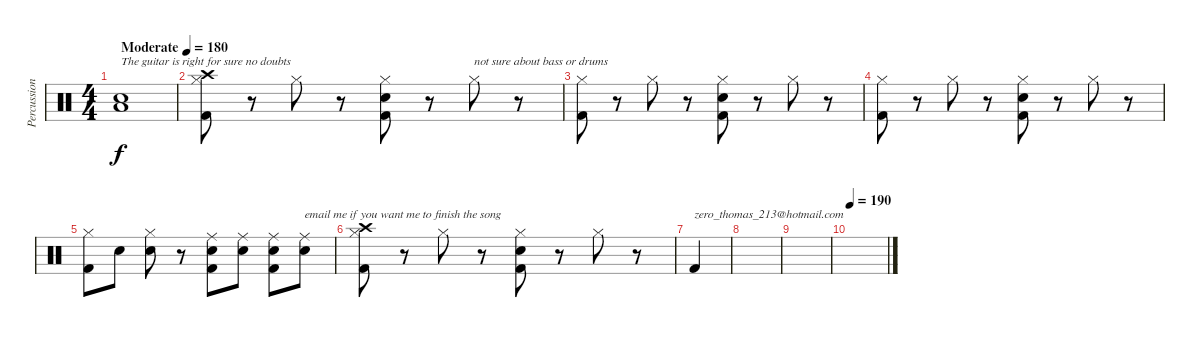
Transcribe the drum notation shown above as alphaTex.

\track ("Percussion" "Percussion") {instrument percussion}
\staff {score}
\articulation defaults
\ts (4 4)
\tempo (180 "Moderate")
\clef neutral
\ks c
("Low Tom (hit)" "Electric Snare (hit)").1{txt "The guitar is right for sure no doubts" dy f} |
("Crash high (hit)" "Hi-Hat (closed)" "Kick (hit) 2").8 r.8 "Hi-Hat (closed)".8 r.8 ("Hi-Hat (closed)" "Snare (hit) 2" "Kick (hit) 2").8 r.8 "Hi-Hat (closed)".8{txt "not sure about bass or drums"} r.8 |
("Hi-Hat (closed)" "Kick (hit) 2").8 r.8 "Hi-Hat (closed)".8 r.8 ("Hi-Hat (closed)" "Snare (hit) 2" "Kick (hit) 2").8 r.8 "Hi-Hat (closed)".8 r.8 |
("Hi-Hat (closed)" "Kick (hit) 2").8 r.8 "Hi-Hat (closed)".8 r.8 ("Hi-Hat (closed)" "Snare (hit) 2" "Kick (hit) 2").8 r.8 "Hi-Hat (closed)".8 r.8 |
("Hi-Hat (closed)" "Kick (hit) 2").8 "Snare (hit) 2".8 ("Hi-Hat (closed)" "Snare (hit) 2").8 r.8 ("Ride (middle)" "Snare (hit) 2" "Kick (hit) 2").8 ("Ride (middle)" "Snare (hit) 2").8 ("Ride (middle)" "Snare (hit) 2" "Kick (hit) 2").8 ("Ride (middle)" "Snare (hit) 2").8{txt "email me if you want me to finish the song"} |
("Crash high (hit)" "Hi-Hat (closed)" "Kick (hit) 2").8 r.8 "Hi-Hat (closed)".8 r.8 ("Hi-Hat (closed)" "Snare (hit) 2" "Kick (hit) 2").8 r.8 "Hi-Hat (closed)".8 r.8 |
"Kick (hit) 2".4{txt "zero_thomas_213@hotmail.com"} |
|
|
\tempo 190
